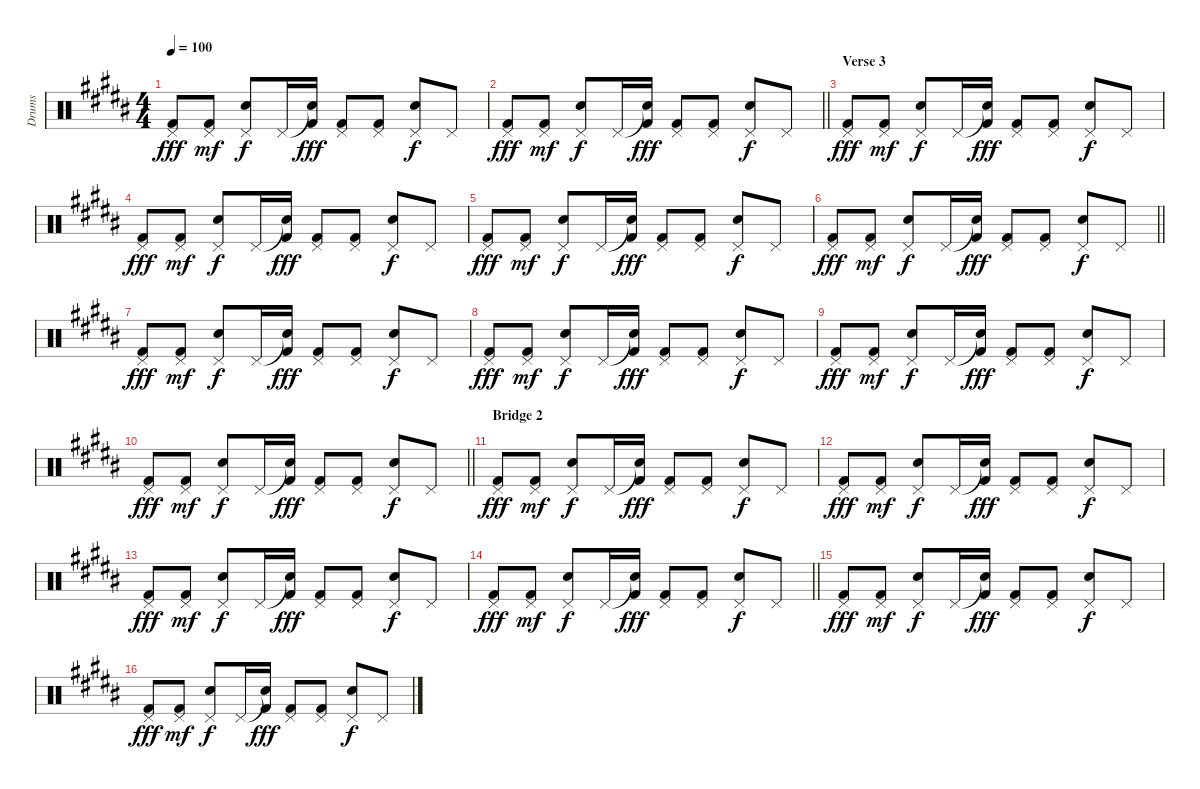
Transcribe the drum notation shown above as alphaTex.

\track ("Drums" "Drums") {instrument percussion}
\staff {score}
\articulation defaults
\ts (4 4)
\tempo 100
\clef neutral
\ks b
("Pedal Hi-Hat (hit)" "Kick (hit) 2").8{dy fff} ("Pedal Hi-Hat (hit)" "Kick (hit) 2").8{dy mf} ("Pedal Hi-Hat (hit)" "Snare (hit) 2").8{dy f} "Pedal Hi-Hat (hit)".16 ("Snare (hit)"{t} "Kick (hit) 2").16{dy fff} ("Pedal Hi-Hat (hit)" "Kick (hit) 2").8 ("Pedal Hi-Hat (hit)" "Kick (hit) 2").8 ("Pedal Hi-Hat (hit)" "Snare (hit) 2").8{dy f} "Pedal Hi-Hat (hit)".8 |
\barLineRight lightlight
("Pedal Hi-Hat (hit)" "Kick (hit) 2").8{dy fff} ("Pedal Hi-Hat (hit)" "Kick (hit) 2").8{dy mf} ("Pedal Hi-Hat (hit)" "Snare (hit) 2").8{dy f} "Pedal Hi-Hat (hit)".16 ("Snare (hit)"{t} "Kick (hit) 2").16{dy fff} ("Pedal Hi-Hat (hit)" "Kick (hit) 2").8 ("Pedal Hi-Hat (hit)" "Kick (hit) 2").8 ("Pedal Hi-Hat (hit)" "Snare (hit) 2").8{dy f} "Pedal Hi-Hat (hit)".8 |
\section ("" "Verse 3")
("Pedal Hi-Hat (hit)" "Kick (hit) 2").8{dy fff} ("Pedal Hi-Hat (hit)" "Kick (hit) 2").8{dy mf} ("Pedal Hi-Hat (hit)" "Snare (hit) 2").8{dy f} "Pedal Hi-Hat (hit)".16 ("Snare (hit)"{t} "Kick (hit) 2").16{dy fff} ("Pedal Hi-Hat (hit)" "Kick (hit) 2").8 ("Pedal Hi-Hat (hit)" "Kick (hit) 2").8 ("Pedal Hi-Hat (hit)" "Snare (hit) 2").8{dy f} "Pedal Hi-Hat (hit)".8 |
("Pedal Hi-Hat (hit)" "Kick (hit) 2").8{dy fff} ("Pedal Hi-Hat (hit)" "Kick (hit) 2").8{dy mf} ("Pedal Hi-Hat (hit)" "Snare (hit) 2").8{dy f} "Pedal Hi-Hat (hit)".16 ("Snare (hit)"{t} "Kick (hit) 2").16{dy fff} ("Pedal Hi-Hat (hit)" "Kick (hit) 2").8 ("Pedal Hi-Hat (hit)" "Kick (hit) 2").8 ("Pedal Hi-Hat (hit)" "Snare (hit) 2").8{dy f} "Pedal Hi-Hat (hit)".8 |
("Pedal Hi-Hat (hit)" "Kick (hit) 2").8{dy fff} ("Pedal Hi-Hat (hit)" "Kick (hit) 2").8{dy mf} ("Pedal Hi-Hat (hit)" "Snare (hit) 2").8{dy f} "Pedal Hi-Hat (hit)".16 ("Snare (hit)"{t} "Kick (hit) 2").16{dy fff} ("Pedal Hi-Hat (hit)" "Kick (hit) 2").8 ("Pedal Hi-Hat (hit)" "Kick (hit) 2").8 ("Pedal Hi-Hat (hit)" "Snare (hit) 2").8{dy f} "Pedal Hi-Hat (hit)".8 |
\barLineRight lightlight
("Pedal Hi-Hat (hit)" "Kick (hit) 2").8{dy fff} ("Pedal Hi-Hat (hit)" "Kick (hit) 2").8{dy mf} ("Pedal Hi-Hat (hit)" "Snare (hit) 2").8{dy f} "Pedal Hi-Hat (hit)".16 ("Snare (hit)"{t} "Kick (hit) 2").16{dy fff} ("Pedal Hi-Hat (hit)" "Kick (hit) 2").8 ("Pedal Hi-Hat (hit)" "Kick (hit) 2").8 ("Pedal Hi-Hat (hit)" "Snare (hit) 2").8{dy f} "Pedal Hi-Hat (hit)".8 |
("Pedal Hi-Hat (hit)" "Kick (hit) 2").8{dy fff} ("Pedal Hi-Hat (hit)" "Kick (hit) 2").8{dy mf} ("Pedal Hi-Hat (hit)" "Snare (hit) 2").8{dy f} "Pedal Hi-Hat (hit)".16 ("Snare (hit)"{t} "Kick (hit) 2").16{dy fff} ("Pedal Hi-Hat (hit)" "Kick (hit) 2").8 ("Pedal Hi-Hat (hit)" "Kick (hit) 2").8 ("Pedal Hi-Hat (hit)" "Snare (hit) 2").8{dy f} "Pedal Hi-Hat (hit)".8 |
("Pedal Hi-Hat (hit)" "Kick (hit) 2").8{dy fff} ("Pedal Hi-Hat (hit)" "Kick (hit) 2").8{dy mf} ("Pedal Hi-Hat (hit)" "Snare (hit) 2").8{dy f} "Pedal Hi-Hat (hit)".16 ("Snare (hit)"{t} "Kick (hit) 2").16{dy fff} ("Pedal Hi-Hat (hit)" "Kick (hit) 2").8 ("Pedal Hi-Hat (hit)" "Kick (hit) 2").8 ("Pedal Hi-Hat (hit)" "Snare (hit) 2").8{dy f} "Pedal Hi-Hat (hit)".8 |
("Pedal Hi-Hat (hit)" "Kick (hit) 2").8{dy fff} ("Pedal Hi-Hat (hit)" "Kick (hit) 2").8{dy mf} ("Pedal Hi-Hat (hit)" "Snare (hit) 2").8{dy f} "Pedal Hi-Hat (hit)".16 ("Snare (hit)"{t} "Kick (hit) 2").16{dy fff} ("Pedal Hi-Hat (hit)" "Kick (hit) 2").8 ("Pedal Hi-Hat (hit)" "Kick (hit) 2").8 ("Pedal Hi-Hat (hit)" "Snare (hit) 2").8{dy f} "Pedal Hi-Hat (hit)".8 |
\barLineRight lightlight
("Pedal Hi-Hat (hit)" "Kick (hit) 2").8{dy fff} ("Pedal Hi-Hat (hit)" "Kick (hit) 2").8{dy mf} ("Pedal Hi-Hat (hit)" "Snare (hit) 2").8{dy f} "Pedal Hi-Hat (hit)".16 ("Snare (hit)"{t} "Kick (hit) 2").16{dy fff} ("Pedal Hi-Hat (hit)" "Kick (hit) 2").8 ("Pedal Hi-Hat (hit)" "Kick (hit) 2").8 ("Pedal Hi-Hat (hit)" "Snare (hit) 2").8{dy f} "Pedal Hi-Hat (hit)".8 |
\section ("" "Bridge 2")
("Pedal Hi-Hat (hit)" "Kick (hit) 2").8{dy fff} ("Pedal Hi-Hat (hit)" "Kick (hit) 2").8{dy mf} ("Pedal Hi-Hat (hit)" "Snare (hit) 2").8{dy f} "Pedal Hi-Hat (hit)".16 ("Snare (hit)"{t} "Kick (hit) 2").16{dy fff} ("Pedal Hi-Hat (hit)" "Kick (hit) 2").8 ("Pedal Hi-Hat (hit)" "Kick (hit) 2").8 ("Pedal Hi-Hat (hit)" "Snare (hit) 2").8{dy f} "Pedal Hi-Hat (hit)".8 |
("Pedal Hi-Hat (hit)" "Kick (hit) 2").8{dy fff} ("Pedal Hi-Hat (hit)" "Kick (hit) 2").8{dy mf} ("Pedal Hi-Hat (hit)" "Snare (hit) 2").8{dy f} "Pedal Hi-Hat (hit)".16 ("Snare (hit)"{t} "Kick (hit) 2").16{dy fff} ("Pedal Hi-Hat (hit)" "Kick (hit) 2").8 ("Pedal Hi-Hat (hit)" "Kick (hit) 2").8 ("Pedal Hi-Hat (hit)" "Snare (hit) 2").8{dy f} "Pedal Hi-Hat (hit)".8 |
("Pedal Hi-Hat (hit)" "Kick (hit) 2").8{dy fff} ("Pedal Hi-Hat (hit)" "Kick (hit) 2").8{dy mf} ("Pedal Hi-Hat (hit)" "Snare (hit) 2").8{dy f} "Pedal Hi-Hat (hit)".16 ("Snare (hit)"{t} "Kick (hit) 2").16{dy fff} ("Pedal Hi-Hat (hit)" "Kick (hit) 2").8 ("Pedal Hi-Hat (hit)" "Kick (hit) 2").8 ("Pedal Hi-Hat (hit)" "Snare (hit) 2").8{dy f} "Pedal Hi-Hat (hit)".8 |
\barLineRight lightlight
("Pedal Hi-Hat (hit)" "Kick (hit) 2").8{dy fff} ("Pedal Hi-Hat (hit)" "Kick (hit) 2").8{dy mf} ("Pedal Hi-Hat (hit)" "Snare (hit) 2").8{dy f} "Pedal Hi-Hat (hit)".16 ("Snare (hit)"{t} "Kick (hit) 2").16{dy fff} ("Pedal Hi-Hat (hit)" "Kick (hit) 2").8 ("Pedal Hi-Hat (hit)" "Kick (hit) 2").8 ("Pedal Hi-Hat (hit)" "Snare (hit) 2").8{dy f} "Pedal Hi-Hat (hit)".8 |
("Pedal Hi-Hat (hit)" "Kick (hit) 2").8{dy fff} ("Pedal Hi-Hat (hit)" "Kick (hit) 2").8{dy mf} ("Pedal Hi-Hat (hit)" "Snare (hit) 2").8{dy f} "Pedal Hi-Hat (hit)".16 ("Snare (hit)"{t} "Kick (hit) 2").16{dy fff} ("Pedal Hi-Hat (hit)" "Kick (hit) 2").8 ("Pedal Hi-Hat (hit)" "Kick (hit) 2").8 ("Pedal Hi-Hat (hit)" "Snare (hit) 2").8{dy f} "Pedal Hi-Hat (hit)".8 |
("Pedal Hi-Hat (hit)" "Kick (hit) 2").8{dy fff} ("Pedal Hi-Hat (hit)" "Kick (hit) 2").8{dy mf} ("Pedal Hi-Hat (hit)" "Snare (hit) 2").8{dy f} "Pedal Hi-Hat (hit)".16 ("Snare (hit)"{t} "Kick (hit) 2").16{dy fff} ("Pedal Hi-Hat (hit)" "Kick (hit) 2").8 ("Pedal Hi-Hat (hit)" "Kick (hit) 2").8 ("Pedal Hi-Hat (hit)" "Snare (hit) 2").8{dy f} "Pedal Hi-Hat (hit)".8
